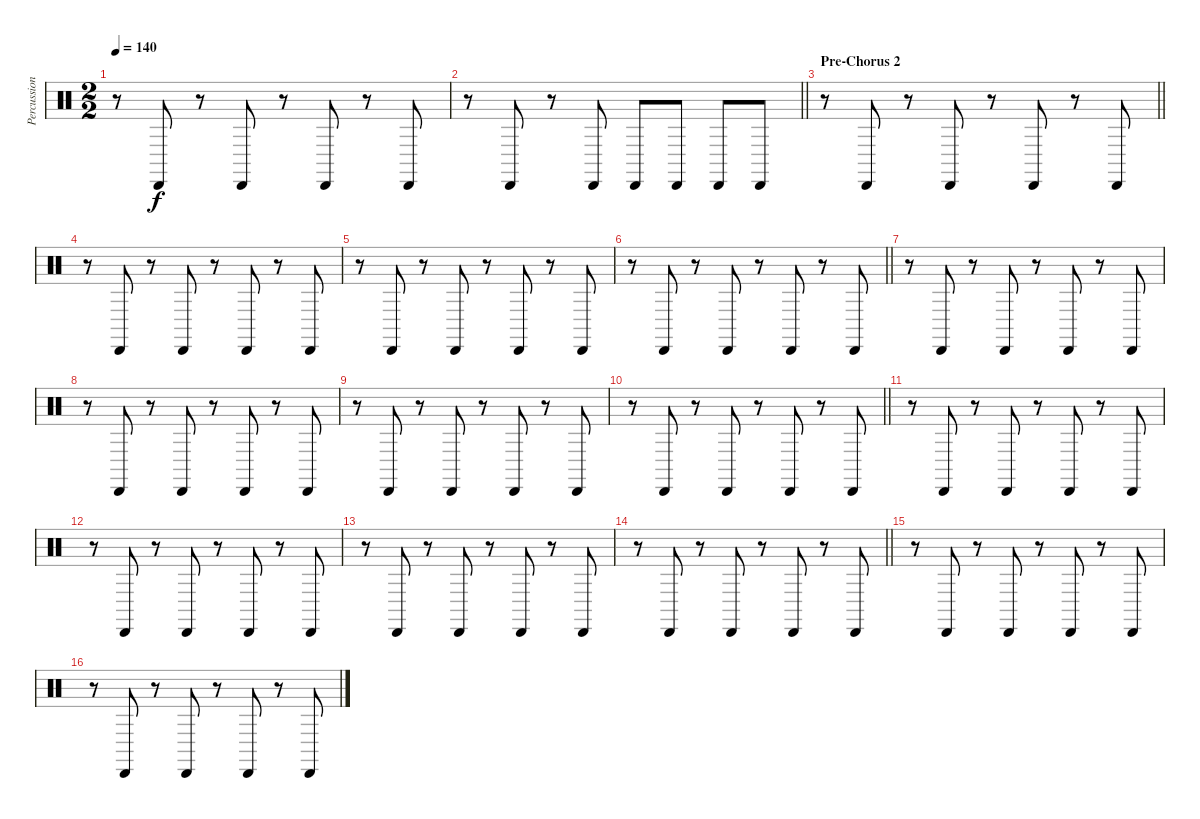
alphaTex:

\track ("Percussion 2" "Percussion") {instrument percussion}
\staff {score}
\articulation defaults
\ts (2 2)
\tempo 140
\clef neutral
\ks c
r.8{dy f} "Cabasa (hit)".8 r.8 "Cabasa (hit)".8 r.8 "Cabasa (hit)".8 r.8 "Cabasa (hit)".8 |
\barLineRight lightlight
r.8 "Cabasa (hit)".8 r.8 "Cabasa (hit)".8 "Cabasa (hit)".8 "Cabasa (hit)".8 "Cabasa (hit)".8 "Cabasa (hit)".8 |
\section ("" "Pre-Chorus 2")
\barLineRight lightlight
r.8 "Cabasa (hit)".8 r.8 "Cabasa (hit)".8 r.8 "Cabasa (hit)".8 r.8 "Cabasa (hit)".8 |
r.8 "Cabasa (hit)".8 r.8 "Cabasa (hit)".8 r.8 "Cabasa (hit)".8 r.8 "Cabasa (hit)".8 |
r.8 "Cabasa (hit)".8 r.8 "Cabasa (hit)".8 r.8 "Cabasa (hit)".8 r.8 "Cabasa (hit)".8 |
\barLineRight lightlight
r.8 "Cabasa (hit)".8 r.8 "Cabasa (hit)".8 r.8 "Cabasa (hit)".8 r.8 "Cabasa (hit)".8 |
r.8 "Cabasa (hit)".8 r.8 "Cabasa (hit)".8 r.8 "Cabasa (hit)".8 r.8 "Cabasa (hit)".8 |
r.8 "Cabasa (hit)".8 r.8 "Cabasa (hit)".8 r.8 "Cabasa (hit)".8 r.8 "Cabasa (hit)".8 |
r.8 "Cabasa (hit)".8 r.8 "Cabasa (hit)".8 r.8 "Cabasa (hit)".8 r.8 "Cabasa (hit)".8 |
\barLineRight lightlight
r.8 "Cabasa (hit)".8 r.8 "Cabasa (hit)".8 r.8 "Cabasa (hit)".8 r.8 "Cabasa (hit)".8 |
r.8 "Cabasa (hit)".8 r.8 "Cabasa (hit)".8 r.8 "Cabasa (hit)".8 r.8 "Cabasa (hit)".8 |
r.8 "Cabasa (hit)".8 r.8 "Cabasa (hit)".8 r.8 "Cabasa (hit)".8 r.8 "Cabasa (hit)".8 |
r.8 "Cabasa (hit)".8 r.8 "Cabasa (hit)".8 r.8 "Cabasa (hit)".8 r.8 "Cabasa (hit)".8 |
\barLineRight lightlight
r.8 "Cabasa (hit)".8 r.8 "Cabasa (hit)".8 r.8 "Cabasa (hit)".8 r.8 "Cabasa (hit)".8 |
r.8 "Cabasa (hit)".8 r.8 "Cabasa (hit)".8 r.8 "Cabasa (hit)".8 r.8 "Cabasa (hit)".8 |
r.8 "Cabasa (hit)".8 r.8 "Cabasa (hit)".8 r.8 "Cabasa (hit)".8 r.8 "Cabasa (hit)".8
